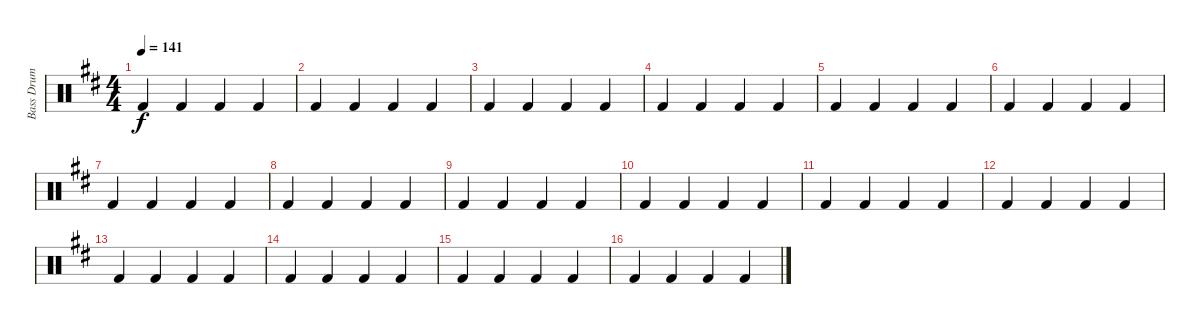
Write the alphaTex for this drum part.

\track ("Bass Drum" "Bass Drum") {instrument percussion}
\staff {score}
\articulation defaults
\ts (4 4)
\tempo 141
\clef neutral
\ks d "Kick (hit) 2".4{dy f} "Kick (hit) 2".4 "Kick (hit) 2".4 "Kick (hit) 2".4
|
"Kick (hit) 2".4 "Kick (hit) 2".4 "Kick (hit) 2".4 "Kick (hit) 2".4 |
"Kick (hit) 2".4 "Kick (hit) 2".4 "Kick (hit) 2".4 "Kick (hit) 2".4 |
"Kick (hit) 2".4 "Kick (hit) 2".4 "Kick (hit) 2".4 "Kick (hit) 2".4 |
"Kick (hit) 2".4 "Kick (hit) 2".4 "Kick (hit) 2".4 "Kick (hit) 2".4 |
"Kick (hit) 2".4 "Kick (hit) 2".4 "Kick (hit) 2".4 "Kick (hit) 2".4 |
"Kick (hit) 2".4 "Kick (hit) 2".4 "Kick (hit) 2".4 "Kick (hit) 2".4 |
"Kick (hit) 2".4 "Kick (hit) 2".4 "Kick (hit) 2".4 "Kick (hit) 2".4 |
"Kick (hit) 2".4 "Kick (hit) 2".4 "Kick (hit) 2".4 "Kick (hit) 2".4 |
"Kick (hit) 2".4 "Kick (hit) 2".4 "Kick (hit) 2".4 "Kick (hit) 2".4 |
"Kick (hit) 2".4 "Kick (hit) 2".4 "Kick (hit) 2".4 "Kick (hit) 2".4 |
"Kick (hit) 2".4 "Kick (hit) 2".4 "Kick (hit) 2".4 "Kick (hit) 2".4 |
"Kick (hit) 2".4 "Kick (hit) 2".4 "Kick (hit) 2".4 "Kick (hit) 2".4 |
"Kick (hit) 2".4 "Kick (hit) 2".4 "Kick (hit) 2".4 "Kick (hit) 2".4 |
"Kick (hit) 2".4 "Kick (hit) 2".4 "Kick (hit) 2".4 "Kick (hit) 2".4 |
"Kick (hit) 2".4 "Kick (hit) 2".4 "Kick (hit) 2".4 "Kick (hit) 2".4
